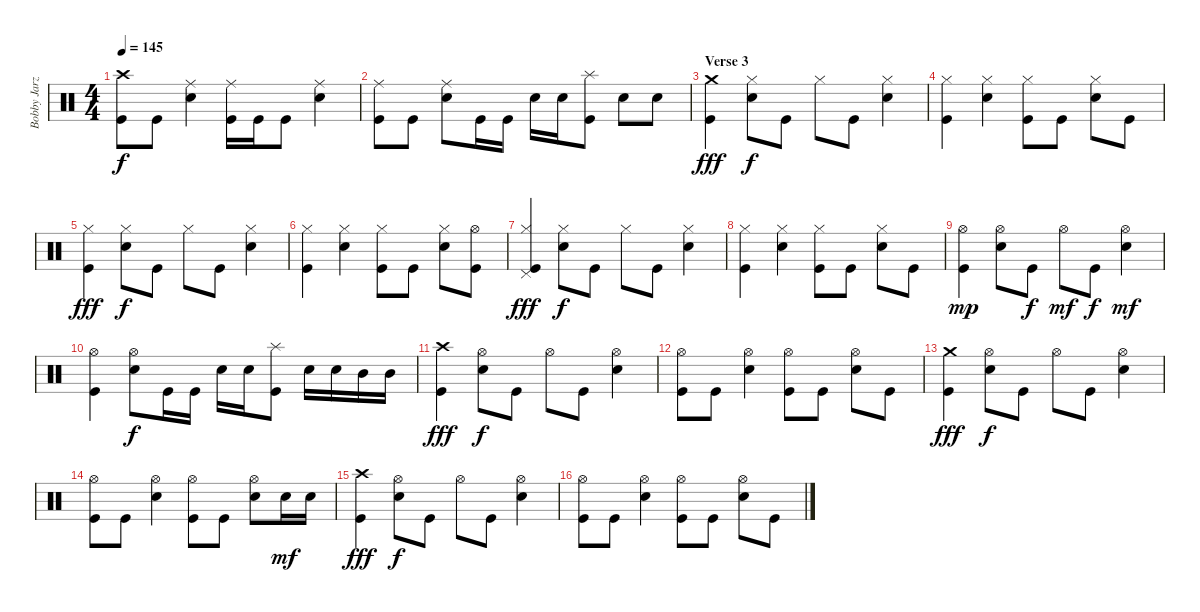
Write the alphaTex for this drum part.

\track ("Bobby Jarzombek" "Bobby Jarz") {instrument percussion}
\staff {score}
\articulation defaults
\ts (4 4)
\tempo 145
\clef neutral
\ks c
("Crash high (hit)" "Kick (hit)").8{dy f} "Kick (hit)".8 ("Ride (middle)" "Electric Snare (hit)").4 ("Ride (middle)" "Kick (hit)").16 "Kick (hit)".16 "Kick (hit)".8 ("Ride (middle)" "Electric Snare (hit)").4 |
("Ride (middle)" "Kick (hit)").8 "Kick (hit)".8 ("Ride (middle)" "Electric Snare (hit)").8 "Kick (hit)".16 "Kick (hit)".16 "Electric Snare (hit)".16 "Electric Snare (hit)".16 ("Splash (hit)" "Kick (hit)").8 "Electric Snare (hit)".8 "Electric Snare (hit)".8 |
\section ("" "Verse 3")
("Crash medium (hit)" "Kick (hit)").4{dy fff} ("Hi-Hat (closed)" "Electric Snare (hit)").8{dy f} "Kick (hit)".8 "Hi-Hat (closed)".8 "Kick (hit)".8 ("Hi-Hat (closed)" "Electric Snare (hit)").4 |
("Hi-Hat (closed)" "Kick (hit)").4 ("Hi-Hat (closed)" "Electric Snare (hit)").4 ("Hi-Hat (closed)" "Kick (hit)").8 "Kick (hit)".8 ("Hi-Hat (closed)" "Electric Snare (hit)").8 "Kick (hit)".8 |
("Hi-Hat (closed)" "Kick (hit)").4{dy fff} ("Hi-Hat (closed)" "Electric Snare (hit)").8{dy f} "Kick (hit)".8 "Hi-Hat (closed)".8 "Kick (hit)".8 ("Hi-Hat (closed)" "Electric Snare (hit)").4 |
("Hi-Hat (closed)" "Kick (hit)").4 ("Hi-Hat (closed)" "Electric Snare (hit)").4 ("Hi-Hat (closed)" "Kick (hit)").8 "Kick (hit)".8 ("Hi-Hat (closed)" "Electric Snare (hit)").8 ("Hi-Hat (open)" "Kick (hit)").8 |
("Hi-Hat (closed)" "Pedal Hi-Hat (hit)" "Kick (hit)").4{dy fff} ("Hi-Hat (closed)" "Electric Snare (hit)").8{dy f} "Kick (hit)".8 "Hi-Hat (closed)".8 "Kick (hit)".8 ("Hi-Hat (closed)" "Electric Snare (hit)").4 |
("Hi-Hat (closed)" "Kick (hit)").4 ("Hi-Hat (closed)" "Electric Snare (hit)").4 ("Hi-Hat (closed)" "Kick (hit)").8 "Kick (hit)".8 ("Hi-Hat (closed)" "Electric Snare (hit)").8 "Kick (hit)".8 |
("Hi-Hat (open)" "Kick (hit)").4{dy mp} ("Hi-Hat (open)" "Electric Snare (hit)").8 "Kick (hit)".8{dy f} "Hi-Hat (open)".8{dy mf} "Kick (hit)".8{dy f} ("Hi-Hat (open)" "Electric Snare (hit)").4{dy mf} |
("Hi-Hat (open)" "Kick (hit)").4 ("Hi-Hat (open)" "Electric Snare (hit)").8{dy f} "Kick (hit)".16 "Kick (hit)".16 "Electric Snare (hit)".16 "Electric Snare (hit)".16 ("Splash (hit)" "Kick (hit)").8 "Electric Snare (hit)".16 "Electric Snare (hit)".16 "Mid Tom (hit)".16 "Mid Tom (hit)".16 |
("Crash high (hit)" "Kick (hit)").4{dy fff} ("Hi-Hat (open)" "Electric Snare (hit)").8{dy f} "Kick (hit)".8 "Hi-Hat (open)".8 "Kick (hit)".8 ("Hi-Hat (open)" "Electric Snare (hit)").4 |
("Hi-Hat (open)" "Kick (hit)").8 "Kick (hit)".8 ("Hi-Hat (open)" "Electric Snare (hit)").4 ("Hi-Hat (open)" "Kick (hit)").8 "Kick (hit)".8 ("Hi-Hat (open)" "Electric Snare (hit)").8 "Kick (hit)".8 |
("Crash medium (hit)" "Kick (hit)").4{dy fff} ("Hi-Hat (open)" "Electric Snare (hit)").8{dy f} "Kick (hit)".8 "Hi-Hat (open)".8 "Kick (hit)".8 ("Hi-Hat (open)" "Electric Snare (hit)").4 |
("Hi-Hat (open)" "Kick (hit)").8 "Kick (hit)".8 ("Hi-Hat (open)" "Electric Snare (hit)").4 ("Hi-Hat (open)" "Kick (hit)").8 "Kick (hit)".8 ("Hi-Hat (open)" "Electric Snare (hit)").8 "Electric Snare (hit)".16{dy mf} "Electric Snare (hit)".16 |
("Crash high (hit)" "Kick (hit)").4{dy fff} ("Hi-Hat (open)" "Electric Snare (hit)").8{dy f} "Kick (hit)".8 "Hi-Hat (open)".8 "Kick (hit)".8 ("Hi-Hat (open)" "Electric Snare (hit)").4 |
("Hi-Hat (open)" "Kick (hit)").8 "Kick (hit)".8 ("Hi-Hat (open)" "Electric Snare (hit)").4 ("Hi-Hat (open)" "Kick (hit)").8 "Kick (hit)".8 ("Hi-Hat (open)" "Electric Snare (hit)").8 "Kick (hit)".8
